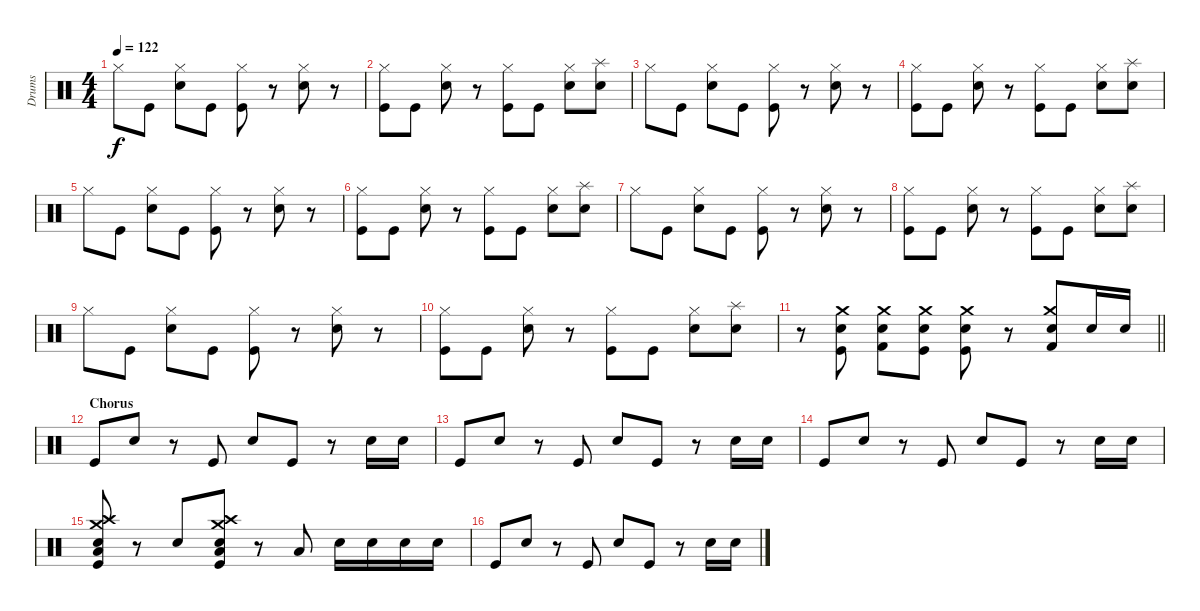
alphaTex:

\track ("Drums" "Drums") {instrument percussion}
\staff {score}
\articulation defaults
\ts (4 4)
\tempo 122
\clef neutral
\ks c "Hi-Hat (closed)".8{dy f} "Kick (hit)".8
("Hi-Hat (closed)" "Snare (hit) 2").8 "Kick (hit)".8 ("Hi-Hat (closed)" "Kick (hit)").8 r.8 ("Hi-Hat (closed)" "Snare (hit) 2").8 r.8 |
("Hi-Hat (closed)" "Kick (hit)").8 "Kick (hit)".8 ("Hi-Hat (closed)" "Snare (hit) 2").8 r.8 ("Hi-Hat (closed)" "Kick (hit)").8 "Kick (hit)".8 ("Hi-Hat (closed)" "Hand Clap (hit)").8 ("Splash (hit)" "Electric Snare (hit)").8 |
"Hi-Hat (closed)".8 "Kick (hit)".8 ("Hi-Hat (closed)" "Snare (hit) 2").8 "Kick (hit)".8 ("Hi-Hat (closed)" "Kick (hit)").8 r.8 ("Hi-Hat (closed)" "Snare (hit) 2").8 r.8 |
("Hi-Hat (closed)" "Kick (hit)").8 "Kick (hit)".8 ("Hi-Hat (closed)" "Snare (hit) 2").8 r.8 ("Hi-Hat (closed)" "Kick (hit)").8 "Kick (hit)".8 ("Hi-Hat (closed)" "Hand Clap (hit)").8 ("Splash (hit)" "Electric Snare (hit)").8 |
"Hi-Hat (closed)".8 "Kick (hit)".8 ("Hi-Hat (closed)" "Snare (hit) 2").8 "Kick (hit)".8 ("Hi-Hat (closed)" "Kick (hit)").8 r.8 ("Hi-Hat (closed)" "Snare (hit) 2").8 r.8 |
("Hi-Hat (closed)" "Kick (hit)").8 "Kick (hit)".8 ("Hi-Hat (closed)" "Snare (hit) 2").8 r.8 ("Hi-Hat (closed)" "Kick (hit)").8 "Kick (hit)".8 ("Hi-Hat (closed)" "Hand Clap (hit)").8 ("Splash (hit)" "Electric Snare (hit)").8 |
"Hi-Hat (closed)".8 "Kick (hit)".8 ("Hi-Hat (closed)" "Snare (hit) 2").8 "Kick (hit)".8 ("Hi-Hat (closed)" "Kick (hit)").8 r.8 ("Hi-Hat (closed)" "Snare (hit) 2").8 r.8 |
("Hi-Hat (closed)" "Kick (hit)").8 "Kick (hit)".8 ("Hi-Hat (closed)" "Snare (hit) 2").8 r.8 ("Hi-Hat (closed)" "Kick (hit)").8 "Kick (hit)".8 ("Hi-Hat (closed)" "Hand Clap (hit)").8 ("Splash (hit)" "Electric Snare (hit)").8 |
"Hi-Hat (closed)".8 "Kick (hit)".8 ("Hi-Hat (closed)" "Snare (hit) 2").8 "Kick (hit)".8 ("Hi-Hat (closed)" "Kick (hit)").8 r.8 ("Hi-Hat (closed)" "Snare (hit) 2").8 r.8 |
("Hi-Hat (closed)" "Kick (hit)").8 "Kick (hit)".8 ("Hi-Hat (closed)" "Snare (hit) 2").8 r.8 ("Hi-Hat (closed)" "Kick (hit)").8 "Kick (hit)".8 ("Hi-Hat (closed)" "Hand Clap (hit)").8 ("Splash (hit)" "Electric Snare (hit)").8 |
\barLineRight lightlight
r.8 ("Crash medium (hit)" "Snare (hit) 2" "Kick (hit)").8 ("Crash medium (hit)" "Snare (hit) 2" "Kick (hit) 2").8 ("Crash medium (hit)" "Snare (hit) 2" "Kick (hit)").8 ("Crash medium (hit)" "Snare (hit) 2" "Kick (hit)").8 r.8 ("Crash medium (hit)" "Snare (hit) 2" "Kick (hit) 2").8 "Snare (hit) 2".16 "Snare (hit) 2".16 |
\section ("" "Chorus")
"Kick (hit)".8 "Snare (hit) 2".8 r.8 "Kick (hit)".8 "Snare (hit) 2".8 "Kick (hit)".8 r.8 "Snare (hit) 2".16 "Snare (hit) 2".16 |
"Kick (hit)".8 "Snare (hit) 2".8 r.8 "Kick (hit)".8 "Snare (hit) 2".8 "Kick (hit)".8 r.8 "Snare (hit) 2".16 "Snare (hit) 2".16 |
"Kick (hit)".8 "Snare (hit) 2".8 r.8 "Kick (hit)".8 "Snare (hit) 2".8 "Kick (hit)".8 r.8 "Snare (hit) 2".16 "Snare (hit) 2".16 |
("Crash high (hit)" "Crash medium (hit)" "Snare (hit) 2" "Low Tom (hit)" "Kick (hit)").8 r.8 "Snare (hit) 2".8 ("Crash high (hit)" "Crash medium (hit)" "Snare (hit) 2" "Low Tom (hit)" "Kick (hit)").8 r.8 "Low Tom (hit)".8 "Snare (hit) 2".16 "Snare (hit) 2".16 "Snare (hit) 2".16 "Snare (hit) 2".16 |
"Kick (hit)".8 "Snare (hit) 2".8 r.8 "Kick (hit)".8 "Snare (hit) 2".8 "Kick (hit)".8 r.8 "Snare (hit) 2".16 "Snare (hit) 2".16
